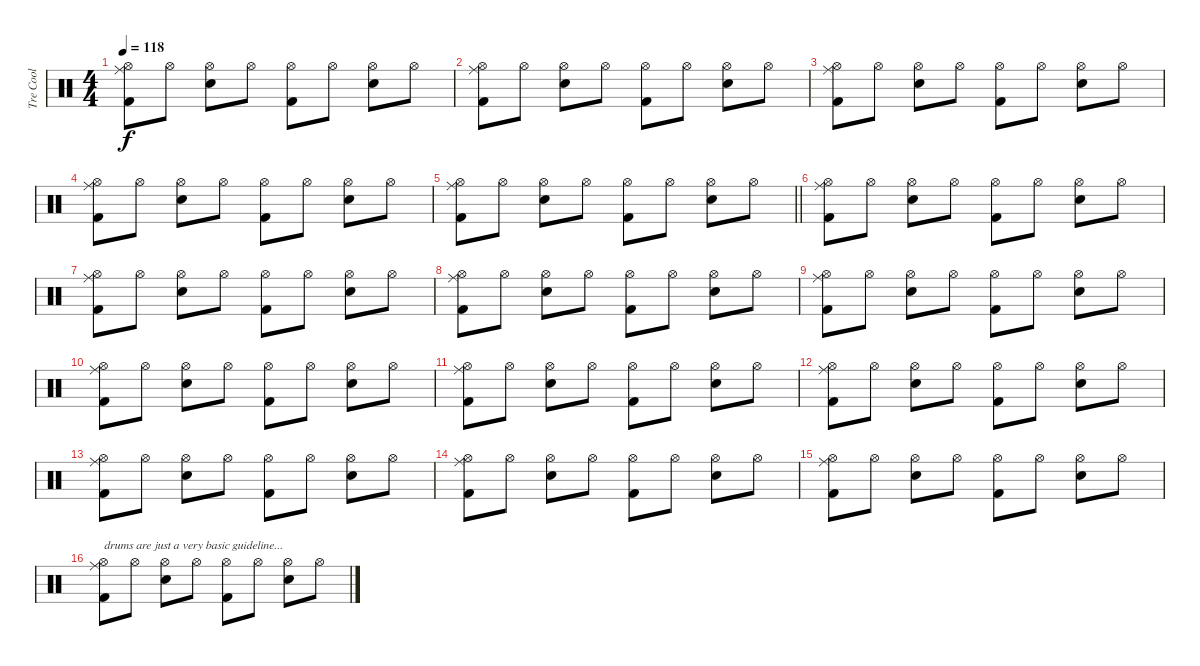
\track ("Tre Cool" "Tre Cool") {instrument percussion}
\staff {score}
\articulation defaults
\ts (4 4)
\tempo 118
\clef neutral
\ks c
("Hi-Hat (open)" "Ride (middle)" "Kick (hit) 2").8{dy f} "Hi-Hat (open)".8 ("Hi-Hat (open)" "Snare (hit) 2").8 "Hi-Hat (open)".8 ("Hi-Hat (open)" "Kick (hit) 2").8 "Hi-Hat (open)".8 ("Hi-Hat (open)" "Snare (hit) 2").8 "Hi-Hat (open)".8 |
("Hi-Hat (open)" "Ride (middle)" "Kick (hit) 2").8 "Hi-Hat (open)".8 ("Hi-Hat (open)" "Snare (hit) 2").8 "Hi-Hat (open)".8 ("Hi-Hat (open)" "Kick (hit) 2").8 "Hi-Hat (open)".8 ("Hi-Hat (open)" "Snare (hit) 2").8 "Hi-Hat (open)".8 |
("Hi-Hat (open)" "Ride (middle)" "Kick (hit) 2").8 "Hi-Hat (open)".8 ("Hi-Hat (open)" "Snare (hit) 2").8 "Hi-Hat (open)".8 ("Hi-Hat (open)" "Kick (hit) 2").8 "Hi-Hat (open)".8 ("Hi-Hat (open)" "Snare (hit) 2").8 "Hi-Hat (open)".8 |
("Hi-Hat (open)" "Ride (middle)" "Kick (hit) 2").8 "Hi-Hat (open)".8 ("Hi-Hat (open)" "Snare (hit) 2").8 "Hi-Hat (open)".8 ("Hi-Hat (open)" "Kick (hit) 2").8 "Hi-Hat (open)".8 ("Hi-Hat (open)" "Snare (hit) 2").8 "Hi-Hat (open)".8 |
\barLineRight lightlight
("Hi-Hat (open)" "Ride (middle)" "Kick (hit) 2").8 "Hi-Hat (open)".8 ("Hi-Hat (open)" "Snare (hit) 2").8 "Hi-Hat (open)".8 ("Hi-Hat (open)" "Kick (hit) 2").8 "Hi-Hat (open)".8 ("Hi-Hat (open)" "Snare (hit) 2").8 "Hi-Hat (open)".8 |
("Hi-Hat (open)" "Ride (middle)" "Kick (hit) 2").8 "Hi-Hat (open)".8 ("Hi-Hat (open)" "Snare (hit) 2").8 "Hi-Hat (open)".8 ("Hi-Hat (open)" "Kick (hit) 2").8 "Hi-Hat (open)".8 ("Hi-Hat (open)" "Snare (hit) 2").8 "Hi-Hat (open)".8 |
("Hi-Hat (open)" "Ride (middle)" "Kick (hit) 2").8 "Hi-Hat (open)".8 ("Hi-Hat (open)" "Snare (hit) 2").8 "Hi-Hat (open)".8 ("Hi-Hat (open)" "Kick (hit) 2").8 "Hi-Hat (open)".8 ("Hi-Hat (open)" "Snare (hit) 2").8 "Hi-Hat (open)".8 |
("Hi-Hat (open)" "Ride (middle)" "Kick (hit) 2").8 "Hi-Hat (open)".8 ("Hi-Hat (open)" "Snare (hit) 2").8 "Hi-Hat (open)".8 ("Hi-Hat (open)" "Kick (hit) 2").8 "Hi-Hat (open)".8 ("Hi-Hat (open)" "Snare (hit) 2").8 "Hi-Hat (open)".8 |
("Hi-Hat (open)" "Ride (middle)" "Kick (hit) 2").8 "Hi-Hat (open)".8 ("Hi-Hat (open)" "Snare (hit) 2").8 "Hi-Hat (open)".8 ("Hi-Hat (open)" "Kick (hit) 2").8 "Hi-Hat (open)".8 ("Hi-Hat (open)" "Snare (hit) 2").8 "Hi-Hat (open)".8 |
("Hi-Hat (open)" "Ride (middle)" "Kick (hit) 2").8 "Hi-Hat (open)".8 ("Hi-Hat (open)" "Snare (hit) 2").8 "Hi-Hat (open)".8 ("Hi-Hat (open)" "Kick (hit) 2").8 "Hi-Hat (open)".8 ("Hi-Hat (open)" "Snare (hit) 2").8 "Hi-Hat (open)".8 |
("Hi-Hat (open)" "Ride (middle)" "Kick (hit) 2").8 "Hi-Hat (open)".8 ("Hi-Hat (open)" "Snare (hit) 2").8 "Hi-Hat (open)".8 ("Hi-Hat (open)" "Kick (hit) 2").8 "Hi-Hat (open)".8 ("Hi-Hat (open)" "Snare (hit) 2").8 "Hi-Hat (open)".8 |
("Hi-Hat (open)" "Ride (middle)" "Kick (hit) 2").8 "Hi-Hat (open)".8 ("Hi-Hat (open)" "Snare (hit) 2").8 "Hi-Hat (open)".8 ("Hi-Hat (open)" "Kick (hit) 2").8 "Hi-Hat (open)".8 ("Hi-Hat (open)" "Snare (hit) 2").8 "Hi-Hat (open)".8 |
("Hi-Hat (open)" "Ride (middle)" "Kick (hit) 2").8 "Hi-Hat (open)".8 ("Hi-Hat (open)" "Snare (hit) 2").8 "Hi-Hat (open)".8 ("Hi-Hat (open)" "Kick (hit) 2").8 "Hi-Hat (open)".8 ("Hi-Hat (open)" "Snare (hit) 2").8 "Hi-Hat (open)".8 |
("Hi-Hat (open)" "Ride (middle)" "Kick (hit) 2").8 "Hi-Hat (open)".8 ("Hi-Hat (open)" "Snare (hit) 2").8 "Hi-Hat (open)".8 ("Hi-Hat (open)" "Kick (hit) 2").8 "Hi-Hat (open)".8 ("Hi-Hat (open)" "Snare (hit) 2").8 "Hi-Hat (open)".8 |
("Hi-Hat (open)" "Ride (middle)" "Kick (hit) 2").8 "Hi-Hat (open)".8 ("Hi-Hat (open)" "Snare (hit) 2").8 "Hi-Hat (open)".8 ("Hi-Hat (open)" "Kick (hit) 2").8 "Hi-Hat (open)".8 ("Hi-Hat (open)" "Snare (hit) 2").8 "Hi-Hat (open)".8 |
("Hi-Hat (open)" "Ride (middle)" "Kick (hit) 2").8{txt "drums are just a very basic guideline..."} "Hi-Hat (open)".8 ("Hi-Hat (open)" "Snare (hit) 2").8 "Hi-Hat (open)".8 ("Hi-Hat (open)" "Kick (hit) 2").8 "Hi-Hat (open)".8 ("Hi-Hat (open)" "Snare (hit) 2").8 "Hi-Hat (open)".8
